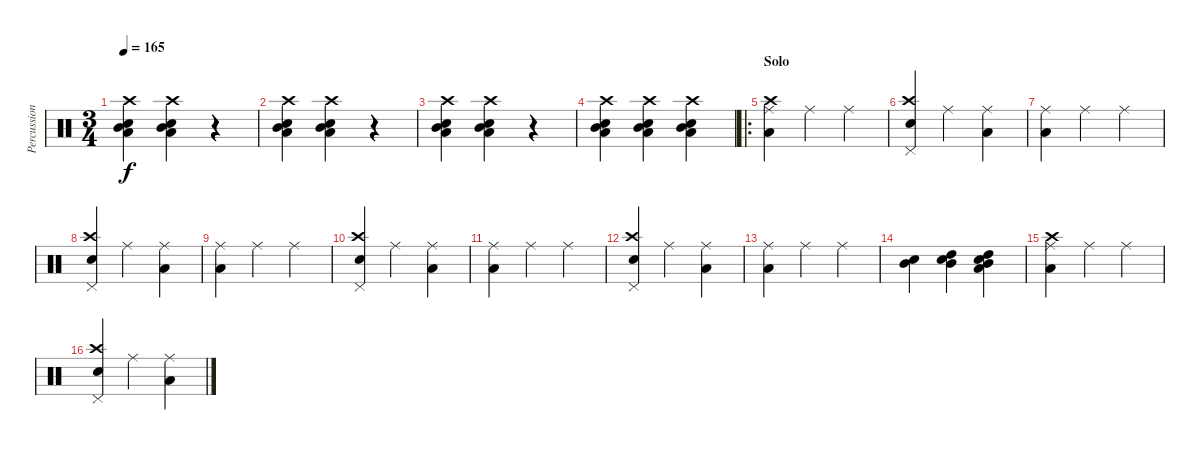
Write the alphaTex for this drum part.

\track ("Percussions" "Percussion") {instrument percussion}
\staff {score}
\articulation defaults
\ts (3 4)
\tempo 165
\clef neutral
\ks c
("Snare (hit) 2" "Mid Tom (hit)" "Crash high (hit)" "Low Floor Tom (hit)").4{dy f} ("Snare (hit) 2" "Mid Tom (hit)" "Crash high (hit)" "Low Floor Tom (hit)").4 r.4 |
("Snare (hit) 2" "Mid Tom (hit)" "Crash high (hit)" "Low Floor Tom (hit)").4 ("Snare (hit) 2" "Mid Tom (hit)" "Crash high (hit)" "Low Floor Tom (hit)").4 r.4 |
("Snare (hit) 2" "Mid Tom (hit)" "Crash high (hit)" "Low Floor Tom (hit)").4 ("Snare (hit) 2" "Mid Tom (hit)" "Crash high (hit)" "Low Floor Tom (hit)").4 r.4 |
("Snare (hit) 2" "Mid Tom (hit)" "Crash high (hit)" "Low Floor Tom (hit)").4 ("Snare (hit) 2" "Mid Tom (hit)" "Crash high (hit)" "Low Floor Tom (hit)").4 ("Snare (hit) 2" "Mid Tom (hit)" "Crash high (hit)" "Low Floor Tom (hit)").4 |
\ro
\section ("" "Solo")
("Crash high (hit)" "Ride (middle)" "Low Floor Tom (hit)").4 "Ride (middle)".4 "Ride (middle)".4 |
("Crash high (hit)" "Snare (hit) 2" "Pedal Hi-Hat (hit)").4 "Ride (middle)".4 ("Ride (middle)" "Low Floor Tom (hit)").4 |
("Ride (middle)" "Low Floor Tom (hit)").4 "Ride (middle)".4 "Ride (middle)".4 |
("Crash high (hit)" "Snare (hit) 2" "Pedal Hi-Hat (hit)").4 "Ride (middle)".4 ("Ride (middle)" "Low Floor Tom (hit)").4 |
("Ride (middle)" "Low Floor Tom (hit)").4 "Ride (middle)".4 "Ride (middle)".4 |
("Crash high (hit)" "Snare (hit) 2" "Pedal Hi-Hat (hit)").4 "Ride (middle)".4 ("Ride (middle)" "Low Floor Tom (hit)").4 |
("Ride (middle)" "Low Floor Tom (hit)").4 "Ride (middle)".4 "Ride (middle)".4 |
("Crash high (hit)" "Snare (hit) 2" "Pedal Hi-Hat (hit)").4 "Ride (middle)".4 ("Ride (middle)" "Low Floor Tom (hit)").4 |
("Ride (middle)" "Low Floor Tom (hit)").4 "Ride (middle)".4 "Ride (middle)".4 |
("Mid Tom (hit)" "Snare (hit) 2").4 ("High Tom (hit)" "Mid Tom (hit)" "Snare (hit) 2").4 ("High Tom (hit)" "Mid Tom (hit)" "Snare (hit) 2" "Low Floor Tom (hit)").4 |
("Crash high (hit)" "Ride (middle)" "Low Floor Tom (hit)").4 "Ride (middle)".4 "Ride (middle)".4 |
("Crash high (hit)" "Snare (hit) 2" "Pedal Hi-Hat (hit)").4 "Ride (middle)".4 ("Ride (middle)" "Low Floor Tom (hit)").4
